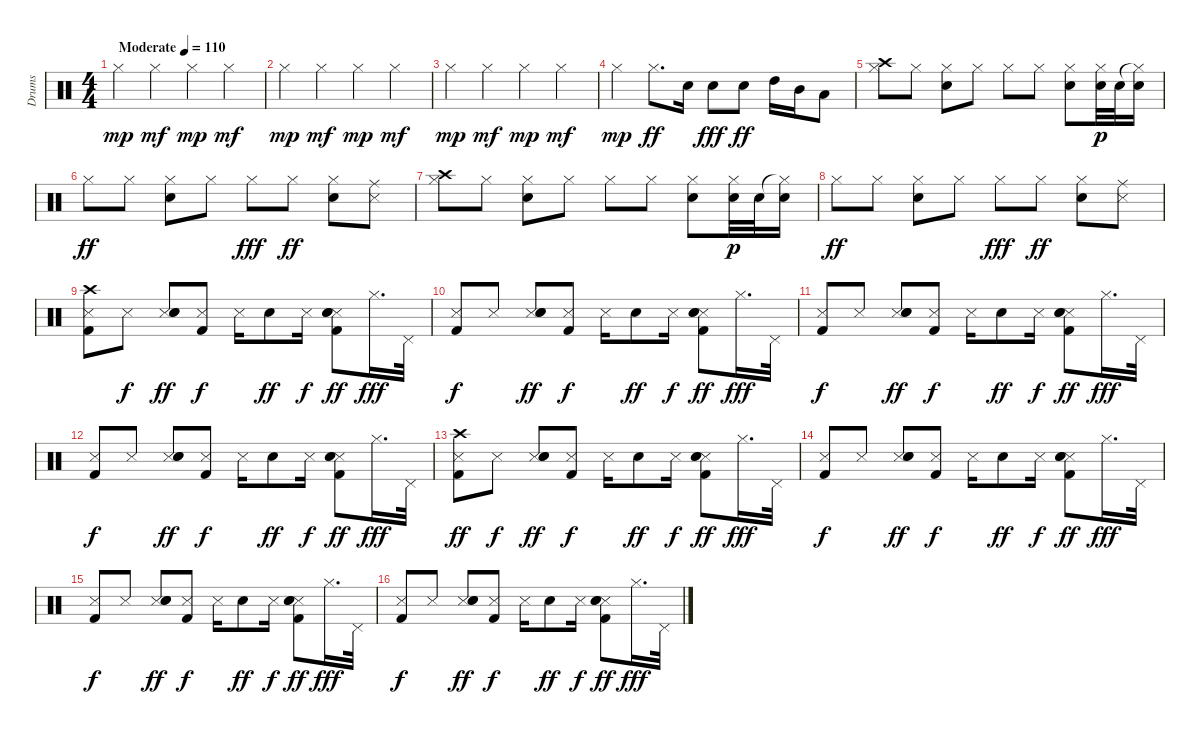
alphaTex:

\track ("Drums" "Drums") {instrument percussion}
\staff {score}
\articulation defaults
\ts (4 4)
\tempo (110 "Moderate")
\clef neutral
\ks c "Hi-Hat (closed)".4{dy mp} "Hi-Hat (closed)".4{dy mf} "Hi-Hat (closed)".4{dy mp} "Hi-Hat (closed)".4{dy mf}
|
"Hi-Hat (closed)".4{dy mp} "Hi-Hat (closed)".4{dy mf} "Hi-Hat (closed)".4{dy mp} "Hi-Hat (closed)".4{dy mf} |
"Hi-Hat (closed)".4{dy mp} "Hi-Hat (closed)".4{dy mf} "Hi-Hat (closed)".4{dy mp} "Hi-Hat (closed)".4{dy mf} |
"Hi-Hat (closed)".4{dy mp} "Hi-Hat (closed)".8{d dy ff} "Snare (hit) 2".16 "Snare (hit) 2".8{dy fff} "Snare (hit) 2".8{dy ff} "High Tom (hit)".16 "Mid Tom (hit)".16 "Low Tom (hit)".8 |
("Crash high (hit)" "Hi-Hat (closed)").8 "Hi-Hat (closed)".8 ("Hi-Hat (closed)" "Snare (hit) 2").8 "Hi-Hat (closed)".8 "Hi-Hat (closed)".8 "Hi-Hat (closed)".8 ("Hi-Hat (closed)" "Snare (hit) 2").8 ("Hi-Hat (closed)" "Snare (hit) 2").32{dy p} "Snare (hit) 2".32 ("Hi-Hat (closed)"{t} "Snare (hit) 2").16 |
"Hi-Hat (closed)".8{dy ff} "Hi-Hat (closed)".8 ("Hi-Hat (closed)" "Snare (hit) 2").8 "Hi-Hat (closed)".8 "Hi-Hat (closed)".8{dy fff} "Hi-Hat (closed)".8{dy ff} ("Hi-Hat (closed)" "Snare (hit) 2").8 ("Ride (middle)" "Snare (side stick) 3").8 |
("Crash high (hit)" "Hi-Hat (closed)").8 "Hi-Hat (closed)".8 ("Hi-Hat (closed)" "Snare (hit) 2").8 "Hi-Hat (closed)".8 "Hi-Hat (closed)".8 "Hi-Hat (closed)".8 ("Hi-Hat (closed)" "Snare (hit) 2").8 ("Hi-Hat (closed)" "Snare (hit) 2").32{dy p} "Snare (hit) 2".32 ("Hi-Hat (closed)"{t} "Snare (hit) 2").16 |
"Hi-Hat (closed)".8{dy ff} "Hi-Hat (closed)".8 ("Hi-Hat (closed)" "Snare (hit) 2").8 "Hi-Hat (closed)".8 "Hi-Hat (closed)".8{dy fff} "Hi-Hat (closed)".8{dy ff} ("Hi-Hat (closed)" "Snare (hit) 2").8 ("Ride (middle)" "Snare (side stick) 3").8 |
("Crash high (hit)" "Snare (side stick) 3" "Kick (hit) 2").8 "Snare (side stick) 3".8{dy f} ("Snare (side stick) 3" "Snare (hit) 2" "Hand Clap (hit)").8{dy ff} ("Snare (side stick) 3" "Kick (hit) 2").8{dy f} "Snare (side stick) 3".16 "Hand Clap (hit)".8{dy ff} "Snare (side stick) 3".16{dy f} ("Snare (side stick) 3" "Snare (hit) 2" "Kick (hit) 2" "Hand Clap (hit)").8{dy ff} "Hi-Hat (closed)".16{d dy fff} "Pedal Hi-Hat (hit)".32 |
("Snare (side stick) 3" "Kick (hit) 2").8{dy f} "Snare (side stick) 3".8 ("Snare (side stick) 3" "Snare (hit) 2" "Hand Clap (hit)").8{dy ff} ("Snare (side stick) 3" "Kick (hit) 2").8{dy f} "Snare (side stick) 3".16 "Hand Clap (hit)".8{dy ff} "Snare (side stick) 3".16{dy f} ("Snare (side stick) 3" "Snare (hit) 2" "Kick (hit) 2" "Hand Clap (hit)").8{dy ff} "Hi-Hat (closed)".16{d dy fff} "Pedal Hi-Hat (hit)".32 |
("Snare (side stick) 3" "Kick (hit) 2").8{dy f} "Snare (side stick) 3".8 ("Snare (side stick) 3" "Snare (hit) 2" "Hand Clap (hit)").8{dy ff} ("Snare (side stick) 3" "Kick (hit) 2").8{dy f} "Snare (side stick) 3".16 "Hand Clap (hit)".8{dy ff} "Snare (side stick) 3".16{dy f} ("Snare (side stick) 3" "Snare (hit) 2" "Kick (hit) 2" "Hand Clap (hit)").8{dy ff} "Hi-Hat (closed)".16{d dy fff} "Pedal Hi-Hat (hit)".32 |
("Snare (side stick) 3" "Kick (hit) 2").8{dy f} "Snare (side stick) 3".8 ("Snare (side stick) 3" "Snare (hit) 2" "Hand Clap (hit)").8{dy ff} ("Snare (side stick) 3" "Kick (hit) 2").8{dy f} "Snare (side stick) 3".16 "Hand Clap (hit)".8{dy ff} "Snare (side stick) 3".16{dy f} ("Snare (side stick) 3" "Snare (hit) 2" "Kick (hit) 2" "Hand Clap (hit)").8{dy ff} "Hi-Hat (closed)".16{d dy fff} "Pedal Hi-Hat (hit)".32 |
("Crash high (hit)" "Snare (side stick) 3" "Kick (hit) 2").8{dy ff} "Snare (side stick) 3".8{dy f} ("Snare (side stick) 3" "Snare (hit) 2" "Hand Clap (hit)").8{dy ff} ("Snare (side stick) 3" "Kick (hit) 2").8{dy f} "Snare (side stick) 3".16 "Hand Clap (hit)".8{dy ff} "Snare (side stick) 3".16{dy f} ("Snare (side stick) 3" "Snare (hit) 2" "Kick (hit) 2" "Hand Clap (hit)").8{dy ff} "Hi-Hat (closed)".16{d dy fff} "Pedal Hi-Hat (hit)".32 |
("Snare (side stick) 3" "Kick (hit) 2").8{dy f} "Snare (side stick) 3".8 ("Snare (side stick) 3" "Snare (hit) 2" "Hand Clap (hit)").8{dy ff} ("Snare (side stick) 3" "Kick (hit) 2").8{dy f} "Snare (side stick) 3".16 "Hand Clap (hit)".8{dy ff} "Snare (side stick) 3".16{dy f} ("Snare (side stick) 3" "Snare (hit) 2" "Kick (hit) 2" "Hand Clap (hit)").8{dy ff} "Hi-Hat (closed)".16{d dy fff} "Pedal Hi-Hat (hit)".32 |
("Snare (side stick) 3" "Kick (hit) 2").8{dy f} "Snare (side stick) 3".8 ("Snare (side stick) 3" "Snare (hit) 2" "Hand Clap (hit)").8{dy ff} ("Snare (side stick) 3" "Kick (hit) 2").8{dy f} "Snare (side stick) 3".16 "Hand Clap (hit)".8{dy ff} "Snare (side stick) 3".16{dy f} ("Snare (side stick) 3" "Snare (hit) 2" "Kick (hit) 2" "Hand Clap (hit)").8{dy ff} "Hi-Hat (closed)".16{d dy fff} "Pedal Hi-Hat (hit)".32 |
("Snare (side stick) 3" "Kick (hit) 2").8{dy f} "Snare (side stick) 3".8 ("Snare (side stick) 3" "Snare (hit) 2" "Hand Clap (hit)").8{dy ff} ("Snare (side stick) 3" "Kick (hit) 2").8{dy f} "Snare (side stick) 3".16 "Hand Clap (hit)".8{dy ff} "Snare (side stick) 3".16{dy f} ("Snare (side stick) 3" "Snare (hit) 2" "Kick (hit) 2" "Hand Clap (hit)").8{dy ff} "Hi-Hat (closed)".16{d dy fff} "Pedal Hi-Hat (hit)".32
